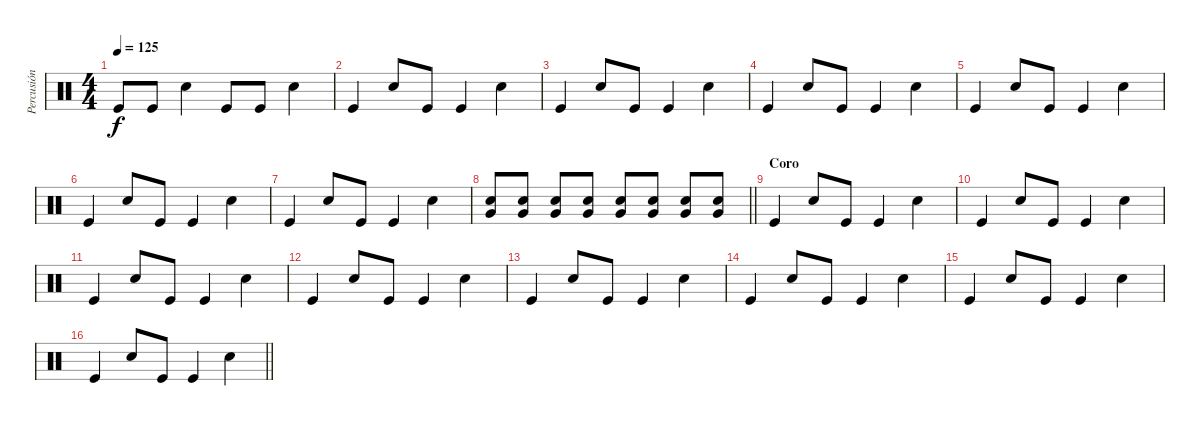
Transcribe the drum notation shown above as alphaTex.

\track ("Percusión" "Percusión") {instrument percussion}
\staff {score}
\articulation defaults
\ts (4 4)
\tempo 125
\clef neutral
\ks c "Kick (hit)".8{dy f} "Kick (hit)".8 "Snare (hit) 2".4 "Kick (hit)".8 "Kick (hit)".8 "Snare (hit) 2".4
|
"Kick (hit)".4 "Snare (hit) 2".8 "Kick (hit)".8 "Kick (hit)".4 "Snare (hit) 2".4 |
"Kick (hit)".4 "Snare (hit) 2".8 "Kick (hit)".8 "Kick (hit)".4 "Snare (hit) 2".4 |
"Kick (hit)".4 "Snare (hit) 2".8 "Kick (hit)".8 "Kick (hit)".4 "Snare (hit) 2".4 |
"Kick (hit)".4 "Snare (hit) 2".8 "Kick (hit)".8 "Kick (hit)".4 "Snare (hit) 2".4 |
"Kick (hit)".4 "Snare (hit) 2".8 "Kick (hit)".8 "Kick (hit)".4 "Snare (hit) 2".4 |
"Kick (hit)".4 "Snare (hit) 2".8 "Kick (hit)".8 "Kick (hit)".4 "Snare (hit) 2".4 |
\barLineRight lightlight
("Very Low Tom (hit)" "Snare (hit) 2").8{volume 16} ("Snare (hit) 2" "Very Low Tom (hit)").8 ("Very Low Tom (hit)" "Snare (hit) 2").8 ("Very Low Tom (hit)" "Snare (hit) 2").8 ("Very Low Tom (hit)" "Snare (hit) 2").8{volume 16} ("Snare (hit) 2" "Very Low Tom (hit)").8 ("Very Low Tom (hit)" "Snare (hit) 2").8 ("Very Low Tom (hit)" "Snare (hit) 2").8 |
\section ("" "Coro")
"Kick (hit)".4 "Snare (hit) 2".8 "Kick (hit)".8 "Kick (hit)".4 "Snare (hit) 2".4 |
"Kick (hit)".4 "Snare (hit) 2".8 "Kick (hit)".8 "Kick (hit)".4 "Snare (hit) 2".4 |
"Kick (hit)".4 "Snare (hit) 2".8 "Kick (hit)".8 "Kick (hit)".4 "Snare (hit) 2".4 |
"Kick (hit)".4 "Snare (hit) 2".8 "Kick (hit)".8 "Kick (hit)".4 "Snare (hit) 2".4 |
"Kick (hit)".4 "Snare (hit) 2".8 "Kick (hit)".8 "Kick (hit)".4 "Snare (hit) 2".4 |
"Kick (hit)".4 "Snare (hit) 2".8 "Kick (hit)".8 "Kick (hit)".4 "Snare (hit) 2".4 |
"Kick (hit)".4 "Snare (hit) 2".8 "Kick (hit)".8 "Kick (hit)".4 "Snare (hit) 2".4 |
\barLineRight lightlight "Kick (hit)".4 "Snare (hit) 2".8 "Kick (hit)".8 "Kick (hit)".4 "Snare (hit) 2".4
